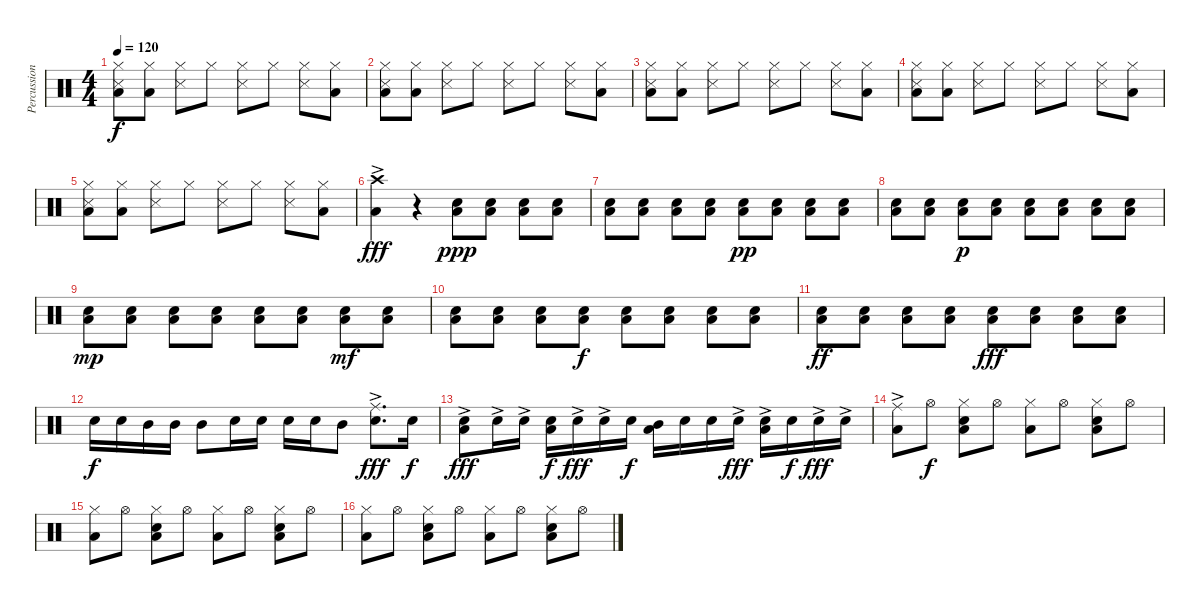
\track ("Percussion" "Percussion") {instrument percussion}
\staff {score}
\articulation defaults
\ts (4 4)
\tempo 120
\clef neutral
\ks c
("Hi-Hat (closed)" "Snare (side stick) 3" "Low Floor Tom (hit)").8{dy f} ("Hi-Hat (closed)" "Low Floor Tom (hit)").8 ("Hi-Hat (closed)" "Snare (side stick) 3").8 "Hi-Hat (closed)".8 ("Hi-Hat (closed)" "Snare (side stick) 3").8 "Hi-Hat (closed)".8 ("Hi-Hat (closed)" "Snare (side stick) 3").8 ("Hi-Hat (closed)" "Low Floor Tom (hit)").8 |
("Hi-Hat (closed)" "Snare (side stick) 3" "Low Floor Tom (hit)").8 ("Hi-Hat (closed)" "Low Floor Tom (hit)").8 ("Hi-Hat (closed)" "Snare (side stick) 3").8 "Hi-Hat (closed)".8 ("Hi-Hat (closed)" "Snare (side stick) 3").8 "Hi-Hat (closed)".8 ("Hi-Hat (closed)" "Snare (side stick) 3").8 ("Hi-Hat (closed)" "Low Floor Tom (hit)").8 |
("Hi-Hat (closed)" "Snare (side stick) 3" "Low Floor Tom (hit)").8 ("Hi-Hat (closed)" "Low Floor Tom (hit)").8 ("Hi-Hat (closed)" "Snare (side stick) 3").8 "Hi-Hat (closed)".8 ("Hi-Hat (closed)" "Snare (side stick) 3").8 "Hi-Hat (closed)".8 ("Hi-Hat (closed)" "Snare (side stick) 3").8 ("Hi-Hat (closed)" "Low Floor Tom (hit)").8 |
("Hi-Hat (closed)" "Snare (side stick) 3" "Low Floor Tom (hit)").8 ("Hi-Hat (closed)" "Low Floor Tom (hit)").8 ("Hi-Hat (closed)" "Snare (side stick) 3").8 "Hi-Hat (closed)".8 ("Hi-Hat (closed)" "Snare (side stick) 3").8 "Hi-Hat (closed)".8 ("Hi-Hat (closed)" "Snare (side stick) 3").8 ("Hi-Hat (closed)" "Low Floor Tom (hit)").8 |
("Hi-Hat (closed)" "Snare (side stick) 3" "Low Floor Tom (hit)").8 ("Hi-Hat (closed)" "Low Floor Tom (hit)").8 ("Hi-Hat (closed)" "Snare (side stick) 3").8 "Hi-Hat (closed)".8 ("Hi-Hat (closed)" "Snare (side stick) 3").8 "Hi-Hat (closed)".8 ("Hi-Hat (closed)" "Snare (side stick) 3").8 ("Hi-Hat (closed)" "Low Floor Tom (hit)").8 |
("Crash high (hit)"{ac} "Low Floor Tom (hit)").4{dy fff} r.4 ("Snare (hit) 2" "Low Tom (hit)").8{dy ppp} ("Snare (hit) 2" "Low Tom (hit)").8 ("Snare (hit) 2" "Low Tom (hit)").8 ("Snare (hit) 2" "Low Tom (hit)").8 |
("Snare (hit) 2" "Low Tom (hit)").8 ("Snare (hit) 2" "Low Tom (hit)").8 ("Snare (hit) 2" "Low Tom (hit)").8 ("Snare (hit) 2" "Low Tom (hit)").8 ("Snare (hit) 2" "Low Tom (hit)").8{dy pp} ("Snare (hit) 2" "Low Tom (hit)").8 ("Snare (hit) 2" "Low Tom (hit)").8 ("Snare (hit) 2" "Low Tom (hit)").8 |
("Snare (hit) 2" "Low Tom (hit)").8 ("Snare (hit) 2" "Low Tom (hit)").8 ("Snare (hit) 2" "Low Tom (hit)").8{dy p} ("Snare (hit) 2" "Low Tom (hit)").8 ("Snare (hit) 2" "Low Tom (hit)").8 ("Snare (hit) 2" "Low Tom (hit)").8 ("Snare (hit) 2" "Low Tom (hit)").8 ("Snare (hit) 2" "Low Tom (hit)").8 |
("Snare (hit) 2" "Low Tom (hit)").8{dy mp} ("Snare (hit) 2" "Low Tom (hit)").8 ("Snare (hit) 2" "Low Tom (hit)").8 ("Snare (hit) 2" "Low Tom (hit)").8 ("Snare (hit) 2" "Low Tom (hit)").8 ("Snare (hit) 2" "Low Tom (hit)").8 ("Snare (hit) 2" "Low Tom (hit)").8{dy mf} ("Snare (hit) 2" "Low Tom (hit)").8 |
("Snare (hit) 2" "Low Tom (hit)").8 ("Snare (hit) 2" "Low Tom (hit)").8 ("Snare (hit) 2" "Low Tom (hit)").8 ("Snare (hit) 2" "Low Tom (hit)").8{dy f} ("Snare (hit) 2" "Low Tom (hit)").8 ("Snare (hit) 2" "Low Tom (hit)").8 ("Snare (hit) 2" "Low Tom (hit)").8 ("Snare (hit) 2" "Low Tom (hit)").8 |
("Snare (hit) 2" "Low Tom (hit)").8{dy ff} ("Snare (hit) 2" "Low Tom (hit)").8 ("Snare (hit) 2" "Low Tom (hit)").8 ("Snare (hit) 2" "Low Tom (hit)").8 ("Snare (hit) 2" "Low Tom (hit)").8{dy fff} ("Snare (hit) 2" "Low Tom (hit)").8 ("Snare (hit) 2" "Low Tom (hit)").8 ("Snare (hit) 2" "Low Tom (hit)").8 |
"Snare (hit) 2".16{dy f} "Snare (hit) 2".16 "Mid Tom (hit)".16 "Mid Tom (hit)".16 "Mid Tom (hit)".8 "Snare (hit) 2".16 "Snare (hit) 2".16 "Snare (hit) 2".16 "Snare (hit) 2".16 "Mid Tom (hit)".8 ("Ride (middle)"{ac} "Snare (hit) 2").8{d dy fff} "Snare (hit) 2".16{dy f} |
("Snare (hit) 2"{ac} "Low Floor Tom (hit)").8{dy fff} "Snare (hit) 2"{ac}.16 "Snare (hit) 2"{ac}.16 ("Snare (hit) 2" "Low Floor Tom (hit)").16{dy f} "Snare (hit) 2"{ac}.16{dy fff} "Snare (hit) 2"{ac}.16 "Snare (hit) 2".16{dy f} ("Mid Tom (hit)" "Low Floor Tom (hit)").16 "Snare (hit) 2".16 "Snare (hit) 2".16 "Snare (hit) 2"{ac}.16{dy fff} ("Snare (hit) 2"{ac} "Low Floor Tom (hit)").16 "Snare (hit) 2".16{dy f} "Snare (hit) 2"{ac}.16{dy fff} "Snare (hit) 2"{ac}.16 |
("Ride (middle)"{ac} "Low Floor Tom (hit)").8 "Hi-Hat (open)".8{dy f} ("Hi-Hat (closed)" "Snare (hit) 2" "Low Floor Tom (hit)").8 "Hi-Hat (open)".8 ("Hi-Hat (closed)" "Low Floor Tom (hit)").8 "Hi-Hat (open)".8 ("Hi-Hat (closed)" "Snare (hit) 2" "Low Floor Tom (hit)").8 "Hi-Hat (open)".8 |
("Hi-Hat (closed)" "Low Floor Tom (hit)").8 "Hi-Hat (open)".8 ("Hi-Hat (closed)" "Snare (hit) 2" "Low Floor Tom (hit)").8 "Hi-Hat (open)".8 ("Hi-Hat (closed)" "Low Floor Tom (hit)").8 "Hi-Hat (open)".8 ("Hi-Hat (closed)" "Snare (hit) 2" "Low Floor Tom (hit)").8 "Hi-Hat (open)".8 |
("Hi-Hat (closed)" "Low Floor Tom (hit)").8 "Hi-Hat (open)".8 ("Hi-Hat (closed)" "Snare (hit) 2" "Low Floor Tom (hit)").8 "Hi-Hat (open)".8 ("Hi-Hat (closed)" "Low Floor Tom (hit)").8 "Hi-Hat (open)".8 ("Hi-Hat (closed)" "Snare (hit) 2" "Low Floor Tom (hit)").8 "Hi-Hat (open)".8
